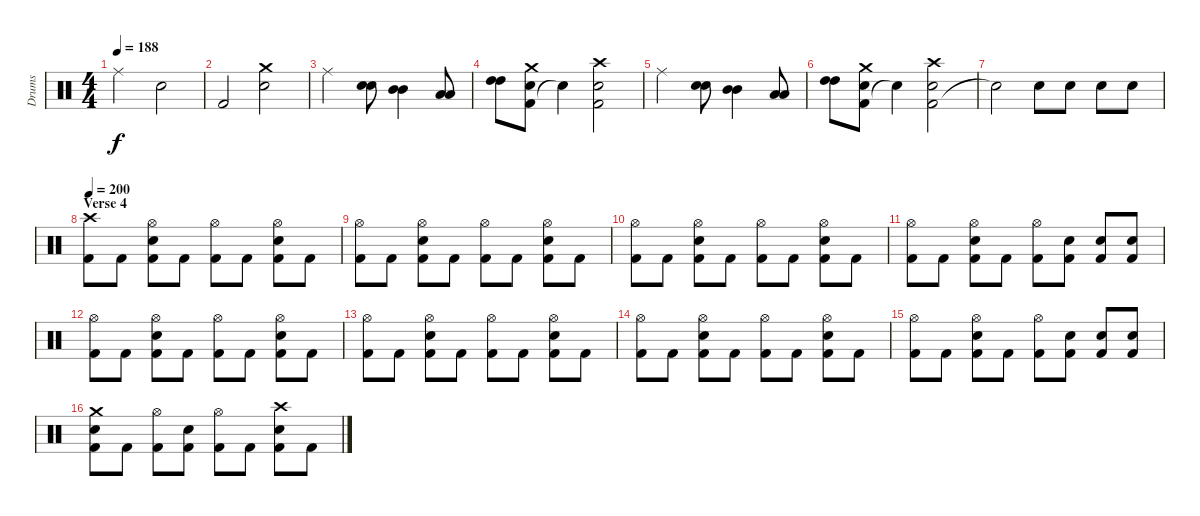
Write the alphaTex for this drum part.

\track ("Drums" "Drums") {instrument percussion}
\staff {score}
\articulation defaults
\ts (4 4)
\tempo 188
\clef neutral
\ks c "Ride (middle)".2{dy f} "Snare (hit) 2".2
|
"Kick (hit) 2".2 ("Snare (hit) 2" "Crash medium (hit)").2 |
"Ride (middle)".2 ("Snare (hit) 2" "Snare (hit) 2").8 ("Mid Tom (hit)" "Mid Tom (hit)").4 ("Low Tom (hit)" "Low Tom (hit)").8 |
("High Tom (hit)" "High Tom (hit)").8 ("Kick (hit) 2" "Snare (hit) 2" "Crash medium (hit)").8 "Snare (hit)"{t}.4 ("Kick (hit) 2" "Snare (hit) 2" "Crash high (hit)").2 |
"Ride (middle)".2 ("Snare (hit) 2" "Snare (hit) 2").8 ("Mid Tom (hit)" "Mid Tom (hit)").4 ("Low Tom (hit)" "Low Tom (hit)").8 |
("High Tom (hit)" "High Tom (hit)").8 ("Kick (hit) 2" "Snare (hit) 2" "Crash medium (hit)").8 "Snare (hit)"{t}.4 ("Kick (hit) 2" "Snare (hit) 2" "Crash high (hit)").2 |
"Snare (hit)"{t}.2 "Snare (hit) 2".8 "Snare (hit) 2".8 "Snare (hit) 2".8 "Snare (hit) 2".8 |
\section ("" "Verse 4")
\tempo 200
("Kick (hit) 2" "Crash high (hit)").8 "Kick (hit) 2".8 ("Kick (hit) 2" "Snare (hit) 2" "Hi-Hat (open)").8 "Kick (hit) 2".8 ("Kick (hit) 2" "Hi-Hat (open)").8 "Kick (hit) 2".8 ("Kick (hit) 2" "Snare (hit) 2" "Hi-Hat (open)").8 "Kick (hit) 2".8 |
("Kick (hit) 2" "Hi-Hat (open)").8 "Kick (hit) 2".8 ("Kick (hit) 2" "Snare (hit) 2" "Hi-Hat (open)").8 "Kick (hit) 2".8 ("Kick (hit) 2" "Hi-Hat (open)").8 "Kick (hit) 2".8 ("Kick (hit) 2" "Snare (hit) 2" "Hi-Hat (open)").8 "Kick (hit) 2".8 |
("Kick (hit) 2" "Hi-Hat (open)").8 "Kick (hit) 2".8 ("Kick (hit) 2" "Snare (hit) 2" "Hi-Hat (open)").8 "Kick (hit) 2".8 ("Kick (hit) 2" "Hi-Hat (open)").8 "Kick (hit) 2".8 ("Kick (hit) 2" "Snare (hit) 2" "Hi-Hat (open)").8 "Kick (hit) 2".8 |
("Kick (hit) 2" "Hi-Hat (open)").8 "Kick (hit) 2".8 ("Kick (hit) 2" "Snare (hit) 2" "Hi-Hat (open)").8 "Kick (hit) 2".8 ("Kick (hit) 2" "Hi-Hat (open)").8 ("Kick (hit) 2" "Snare (hit) 2").8 ("Kick (hit) 2" "Snare (hit) 2").8 ("Kick (hit) 2" "Snare (hit) 2").8 |
("Kick (hit) 2" "Hi-Hat (open)").8 "Kick (hit) 2".8 ("Kick (hit) 2" "Snare (hit) 2" "Hi-Hat (open)").8 "Kick (hit) 2".8 ("Kick (hit) 2" "Hi-Hat (open)").8 "Kick (hit) 2".8 ("Kick (hit) 2" "Snare (hit) 2" "Hi-Hat (open)").8 "Kick (hit) 2".8 |
("Kick (hit) 2" "Hi-Hat (open)").8 "Kick (hit) 2".8 ("Kick (hit) 2" "Snare (hit) 2" "Hi-Hat (open)").8 "Kick (hit) 2".8 ("Kick (hit) 2" "Hi-Hat (open)").8 "Kick (hit) 2".8 ("Kick (hit) 2" "Snare (hit) 2" "Hi-Hat (open)").8 "Kick (hit) 2".8 |
("Kick (hit) 2" "Hi-Hat (open)").8 "Kick (hit) 2".8 ("Kick (hit) 2" "Snare (hit) 2" "Hi-Hat (open)").8 "Kick (hit) 2".8 ("Kick (hit) 2" "Hi-Hat (open)").8 "Kick (hit) 2".8 ("Kick (hit) 2" "Snare (hit) 2" "Hi-Hat (open)").8 "Kick (hit) 2".8 |
("Kick (hit) 2" "Hi-Hat (open)").8 "Kick (hit) 2".8 ("Kick (hit) 2" "Snare (hit) 2" "Hi-Hat (open)").8 "Kick (hit) 2".8 ("Kick (hit) 2" "Hi-Hat (open)").8 ("Kick (hit) 2" "Snare (hit) 2").8 ("Kick (hit) 2" "Snare (hit) 2").8 ("Kick (hit) 2" "Snare (hit) 2").8 |
("Kick (hit) 2" "Snare (hit) 2" "Crash medium (hit)").8 "Kick (hit) 2".8 ("Kick (hit) 2" "Hi-Hat (open)").8 ("Kick (hit) 2" "Snare (hit) 2").8 ("Kick (hit) 2" "Hi-Hat (open)").8 "Kick (hit) 2".8 ("Kick (hit) 2" "Snare (hit) 2" "Crash high (hit)").8 "Kick (hit) 2".8
